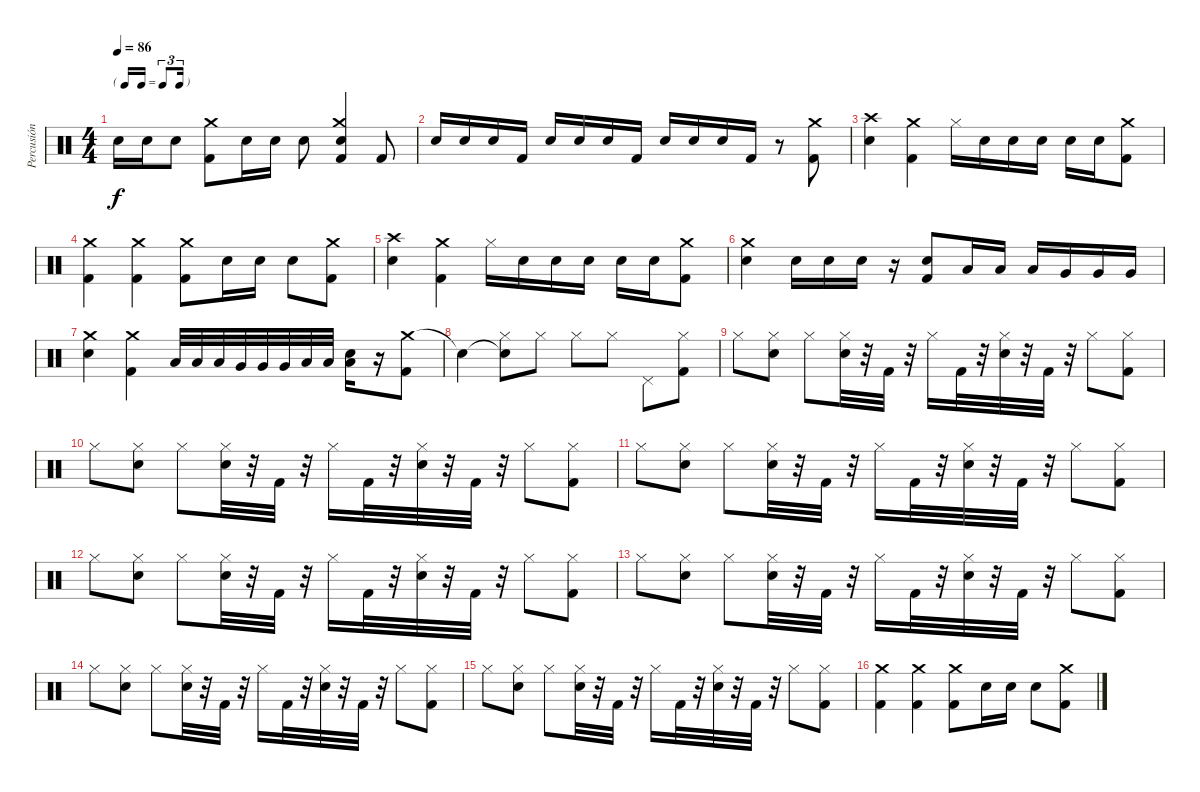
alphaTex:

\track ("Percusión" "Percusión") {instrument percussion}
\staff {score}
\articulation defaults
\ts (4 4)
\tf triplet16th
\tempo 86
\clef neutral
\ks c "Snare (hit) 2".16{dy f} "Snare (hit) 2".16 "Snare (hit) 2".8
("Crash medium (hit)" "Kick (hit) 2").8 "Snare (hit) 2".16 "Snare (hit) 2".16 "Snare (hit) 2".8 ("Crash medium (hit)" "Snare (hit) 2" "Kick (hit) 2").4 "Kick (hit) 2".8 |
"Snare (hit) 2".16 "Snare (hit) 2".16 "Snare (hit) 2".16 "Kick (hit) 2".16 "Snare (hit) 2".16 "Snare (hit) 2".16 "Snare (hit) 2".16 "Kick (hit) 2".16 "Snare (hit) 2".16 "Snare (hit) 2".16 "Snare (hit) 2".16 "Kick (hit) 2".16 r.8 ("Crash medium (hit)" "Kick (hit) 2").8 |
("Crash high (hit)" "Snare (hit) 2").4 ("Crash medium (hit)" "Kick (hit) 2").4 "Hi-Hat (closed)".16 "Snare (hit) 2".16 "Snare (hit) 2".16 "Snare (hit) 2".16 "Snare (hit) 2".16 "Snare (hit) 2".16 ("Crash medium (hit)" "Kick (hit) 2").8 |
("Crash medium (hit)" "Kick (hit) 2").4 ("Crash medium (hit)" "Kick (hit) 2").4 ("Crash medium (hit)" "Kick (hit) 2").8 "Snare (hit) 2".16 "Snare (hit) 2".16 "Snare (hit) 2".8 ("Crash medium (hit)" "Kick (hit) 2").8 |
("Crash high (hit)" "Snare (hit) 2").4 ("Crash medium (hit)" "Kick (hit) 2").4 "Hi-Hat (closed)".16 "Snare (hit) 2".16 "Snare (hit) 2".16 "Snare (hit) 2".16 "Snare (hit) 2".16 "Snare (hit) 2".16 ("Crash medium (hit)" "Kick (hit) 2").8 |
("Crash medium (hit)" "Snare (hit) 2").4 "Snare (hit) 2".16 "Snare (hit) 2".16 "Snare (hit) 2".16 r.16 ("Kick (hit) 2" "Snare (hit) 2").8 "Low Floor Tom (hit)".16 "Low Floor Tom (hit)".16 "Low Floor Tom (hit)".16 "Very Low Tom (hit)".16 "Very Low Tom (hit)".16 "Very Low Tom (hit)".16 |
("Crash medium (hit)" "Snare (hit) 2").4 ("Crash medium (hit)" "Kick (hit) 2").4 "Low Tom (hit)".32 "Low Tom (hit)".32 "Low Tom (hit)".32 "Very Low Tom (hit)".32 "Very Low Tom (hit)".32 "Very Low Tom (hit)".32 "Low Floor Tom (hit)".32 "Low Floor Tom (hit)".32 ("Snare (hit) 2" "Low Floor Tom (hit)").16 r.16 ("Crash medium (hit)" "Kick (hit) 2").8 |
"Snare (hit)"{t}.4{volume 11} ("Snare (hit)"{t} "Hi-Hat (closed)").8 "Hi-Hat (closed)".8 "Hi-Hat (closed)".8 "Hi-Hat (closed)".8 "Pedal Hi-Hat (hit)".8 ("Hi-Hat (closed)" "Kick (hit) 2").8 |
"Hi-Hat (closed)".8 ("Hi-Hat (closed)" "Snare (hit) 2").8 "Hi-Hat (closed)".8 ("Hi-Hat (closed)" "Snare (hit) 2").32 r.32 "Kick (hit) 2".32 r.32 "Hi-Hat (closed)".16 "Kick (hit) 2".32 r.32 ("Hi-Hat (closed)" "Snare (hit) 2").32 r.32 "Kick (hit) 2".32 r.32 "Hi-Hat (closed)".8 ("Hi-Hat (closed)" "Kick (hit) 2").8 |
"Hi-Hat (closed)".8 ("Hi-Hat (closed)" "Snare (hit) 2").8 "Hi-Hat (closed)".8 ("Hi-Hat (closed)" "Snare (hit) 2").32 r.32 "Kick (hit) 2".32 r.32 "Hi-Hat (closed)".16 "Kick (hit) 2".32 r.32 ("Hi-Hat (closed)" "Snare (hit) 2").32 r.32 "Kick (hit) 2".32 r.32 "Hi-Hat (closed)".8 ("Hi-Hat (closed)" "Kick (hit) 2").8 |
"Hi-Hat (closed)".8 ("Hi-Hat (closed)" "Snare (hit) 2").8 "Hi-Hat (closed)".8 ("Hi-Hat (closed)" "Snare (hit) 2").32 r.32 "Kick (hit) 2".32 r.32 "Hi-Hat (closed)".16 "Kick (hit) 2".32 r.32 ("Hi-Hat (closed)" "Snare (hit) 2").32 r.32 "Kick (hit) 2".32 r.32 "Hi-Hat (closed)".8 ("Hi-Hat (closed)" "Kick (hit) 2").8 |
"Hi-Hat (closed)".8 ("Hi-Hat (closed)" "Snare (hit) 2").8 "Hi-Hat (closed)".8 ("Hi-Hat (closed)" "Snare (hit) 2").32 r.32 "Kick (hit) 2".32 r.32 "Hi-Hat (closed)".16 "Kick (hit) 2".32 r.32 ("Hi-Hat (closed)" "Snare (hit) 2").32 r.32 "Kick (hit) 2".32 r.32 "Hi-Hat (closed)".8 ("Hi-Hat (closed)" "Kick (hit) 2").8 |
"Hi-Hat (closed)".8 ("Hi-Hat (closed)" "Snare (hit) 2").8 "Hi-Hat (closed)".8 ("Hi-Hat (closed)" "Snare (hit) 2").32 r.32 "Kick (hit) 2".32 r.32 "Hi-Hat (closed)".16 "Kick (hit) 2".32 r.32 ("Hi-Hat (closed)" "Snare (hit) 2").32 r.32 "Kick (hit) 2".32 r.32 "Hi-Hat (closed)".8 ("Hi-Hat (closed)" "Kick (hit) 2").8 |
"Hi-Hat (closed)".8 ("Hi-Hat (closed)" "Snare (hit) 2").8 "Hi-Hat (closed)".8 ("Hi-Hat (closed)" "Snare (hit) 2").32 r.32 "Kick (hit) 2".32 r.32 "Hi-Hat (closed)".16 "Kick (hit) 2".32 r.32 ("Hi-Hat (closed)" "Snare (hit) 2").32 r.32 "Kick (hit) 2".32 r.32 "Hi-Hat (closed)".8 ("Hi-Hat (closed)" "Kick (hit) 2").8 |
"Hi-Hat (closed)".8 ("Hi-Hat (closed)" "Snare (hit) 2").8 "Hi-Hat (closed)".8 ("Hi-Hat (closed)" "Snare (hit) 2").32 r.32 "Kick (hit) 2".32 r.32 "Hi-Hat (closed)".16 "Kick (hit) 2".32 r.32 ("Hi-Hat (closed)" "Snare (hit) 2").32 r.32 "Kick (hit) 2".32 r.32 "Hi-Hat (closed)".8 ("Hi-Hat (closed)" "Kick (hit) 2").8 |
("Crash medium (hit)" "Kick (hit) 2").4{volume 16} ("Crash medium (hit)" "Kick (hit) 2").4 ("Crash medium (hit)" "Kick (hit) 2").8 "Snare (hit) 2".16 "Snare (hit) 2".16 "Snare (hit) 2".8 ("Crash medium (hit)" "Kick (hit) 2").8
